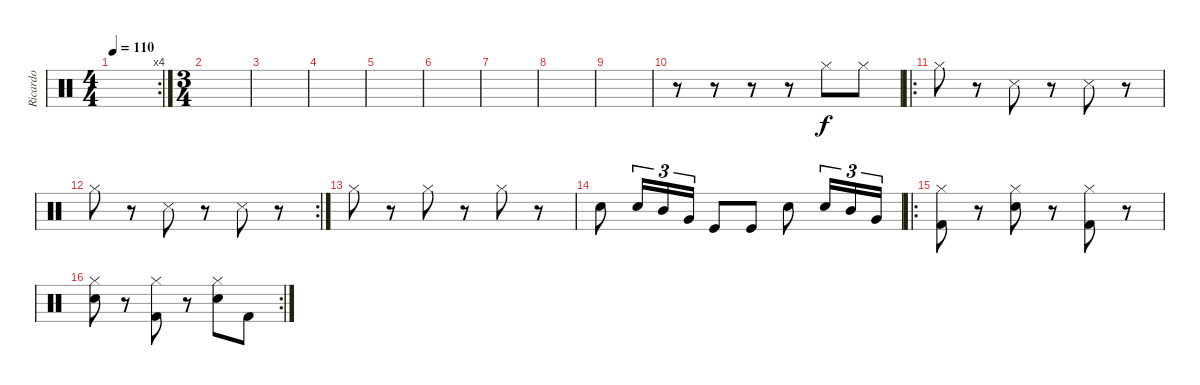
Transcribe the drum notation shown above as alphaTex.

\track ("Ricardo" "Ricardo") {instrument percussion}
\staff {score}
\articulation defaults
\rc 4
\ts (4 4)
\tempo 110
\clef neutral
\ks c
|
\ts (3 4)
|
|
|
|
|
|
|
|
r.8 r.8 r.8 r.8 "Hi-Hat (closed)".8 "Hi-Hat (closed)".8 |
\ro "Hi-Hat (closed)".8
r.8 "Snare (side stick) 3".8 r.8 "Snare (side stick) 3".8 r.8 |
\rc 2 "Hi-Hat (closed)".8
r.8 "Snare (side stick) 3".8 r.8 "Snare (side stick) 3".8 r.8 |
"Hi-Hat (closed)".8 r.8 "Hi-Hat (closed)".8 r.8 "Hi-Hat (closed)".8 r.8 |
"Snare (hit) 2".8 "Snare (hit) 2".16{tu (3 2)} "Mid Tom (hit)".16{tu (3 2)} "Very Low Tom (hit)".16{tu (3 2)} "Kick (hit)".8 "Kick (hit)".8 "Snare (hit) 2".8 "Snare (hit) 2".16{tu (3 2)} "Mid Tom (hit)".16{tu (3 2)} "Very Low Tom (hit)".16{tu (3 2)} |
\ro
("Hi-Hat (closed)" "Kick (hit) 2").8 r.8 ("Hi-Hat (closed)" "Snare (hit) 2").8 r.8 ("Hi-Hat (closed)" "Kick (hit) 2").8 r.8 |
\rc 2
("Hi-Hat (closed)" "Snare (hit) 2").8 r.8 ("Hi-Hat (closed)" "Kick (hit) 2").8 r.8 ("Hi-Hat (closed)" "Snare (hit) 2").8 "Kick (hit) 2".8
